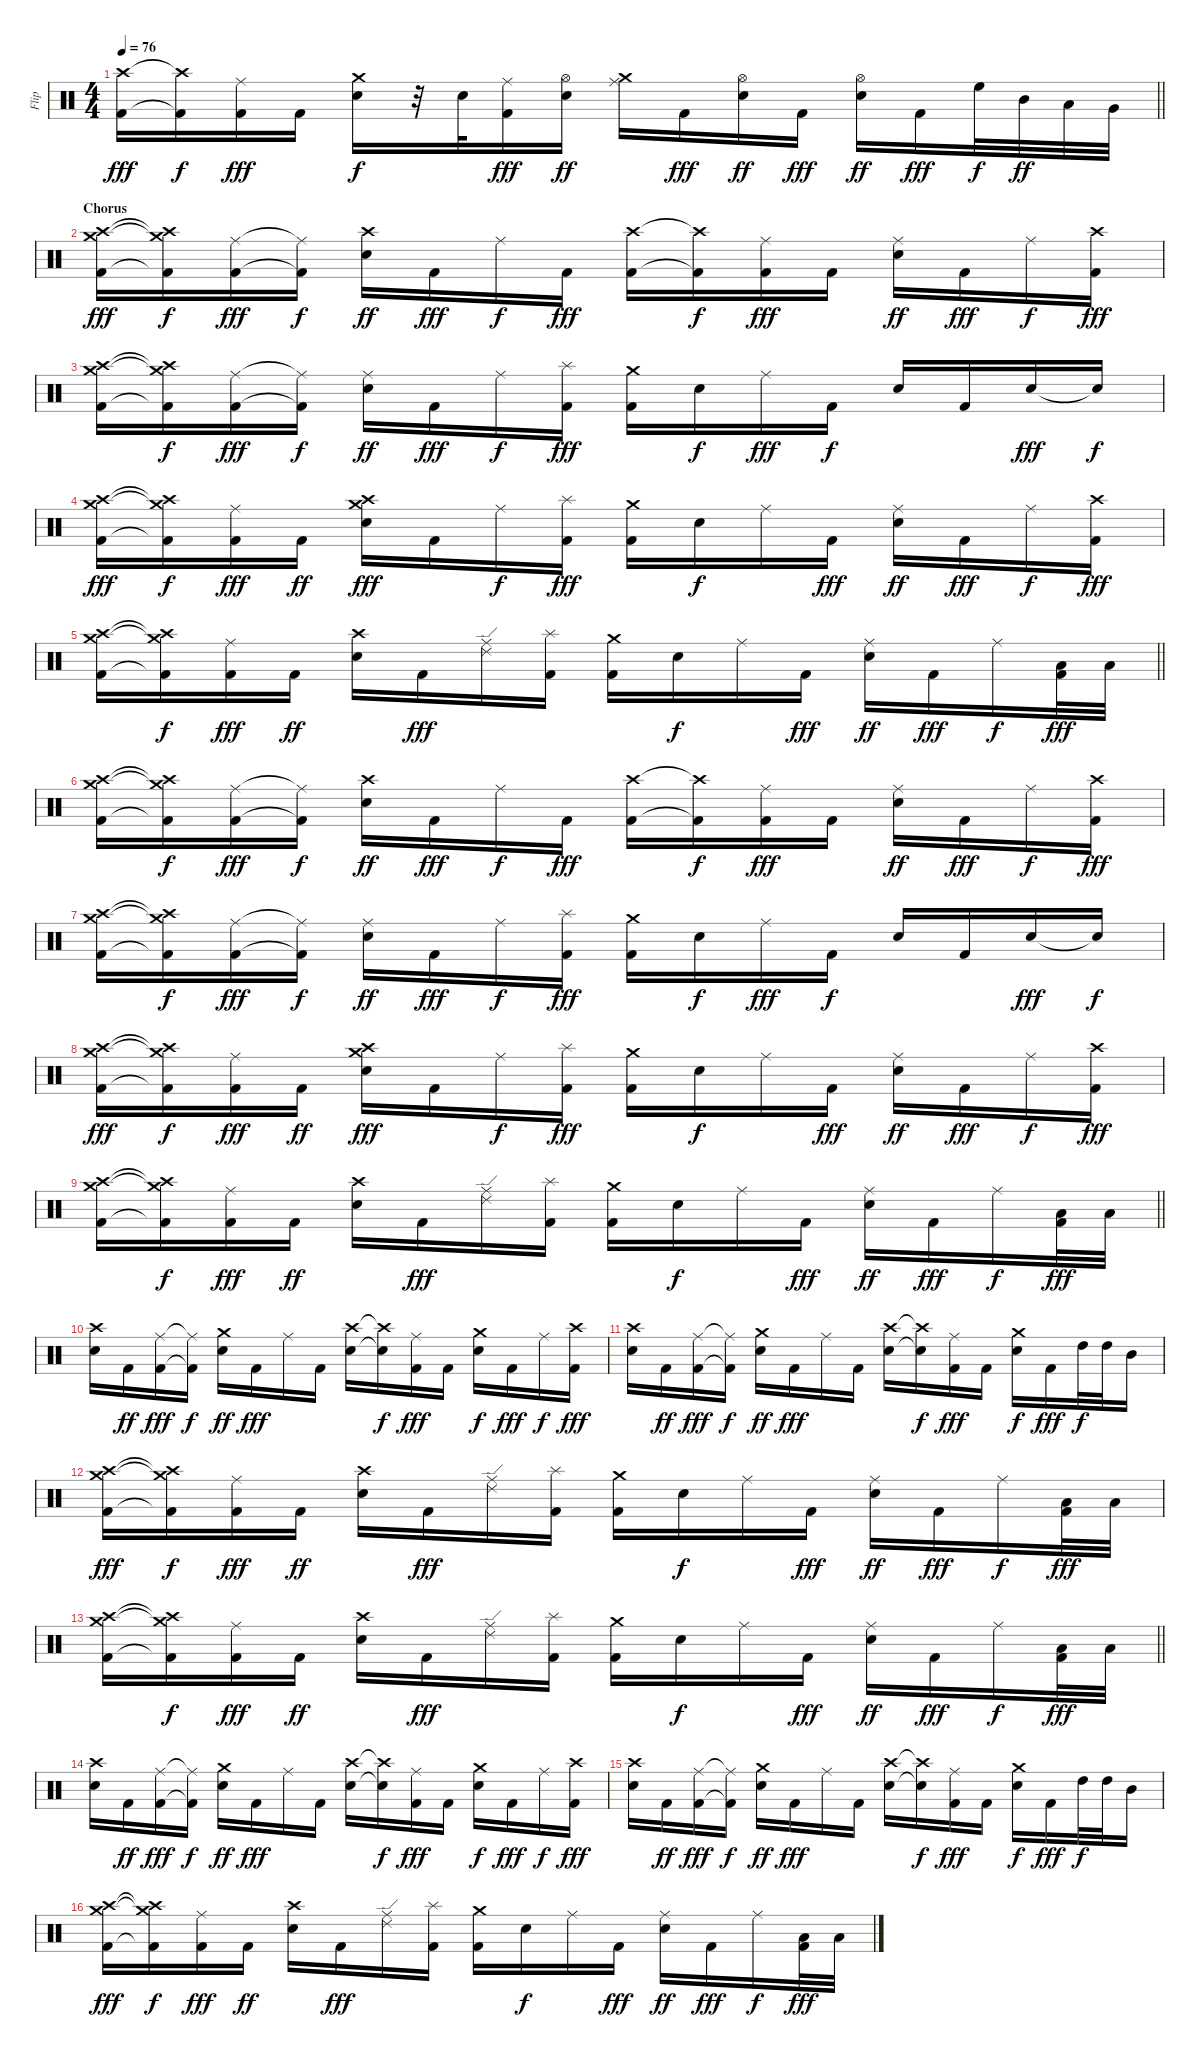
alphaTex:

\track ("Flip" "Flip") {instrument percussion}
\staff {score}
\articulation defaults
\ts (4 4)
\tempo 76
\clef neutral
\barLineRight lightlight
\ks c
("Crash high (hit)" "Kick (hit) 2").16{dy fff} ("Crash high (hit)"{t} "Kick (hit) 2"{t}).16{dy f} ("Ride (middle)" "Kick (hit) 2").16{dy fff} "Kick (hit) 2".16 ("Crash medium (hit)" "Snare (hit) 2").16{dy f} r.32 "Snare (hit) 2".32 ("Ride (middle)" "Kick (hit) 2").16{dy fff} ("Hi-Hat (open)" "Snare (hit) 2").16{dy ff} ("Crash medium (hit)" "Ride (middle)").16 "Kick (hit) 2".16{dy fff} ("Hi-Hat (open)" "Snare (hit) 2").16{dy ff} "Kick (hit) 2".16{dy fff} ("Hi-Hat (open)" "Snare (hit) 2").16{dy ff} "Kick (hit) 2".16{dy fff} "High Floor Tom (hit)".32{dy f} "Mid Tom (hit)".32{dy ff} "Low Tom (hit)".32 "Very Low Tom (hit)".32 |
\section ("" "Chorus")
("Crash medium (hit)" "Crash high (hit)" "Kick (hit) 2").16{dy fff} ("Crash medium (hit)"{t} "Crash high (hit)"{t} "Kick (hit) 2"{t}).16{dy f} ("Ride (middle)" "Kick (hit) 2").16{dy fff} ("Ride (middle)"{t} "Kick (hit) 2"{t}).16{dy f} ("Crash high (hit)" "Snare (hit) 2").16{dy ff} "Kick (hit) 2".16{dy fff} "Ride (middle)".16{dy f} "Kick (hit) 2".16{dy fff} ("Crash high (hit)" "Kick (hit) 2").16 ("Crash high (hit)"{t} "Kick (hit) 2"{t}).16{dy f} ("Ride (middle)" "Kick (hit) 2").16{dy fff} "Kick (hit) 2".16 ("Ride (middle)" "Snare (hit) 2").16{dy ff} "Kick (hit) 2".16{dy fff} "Ride (middle)".16{dy f} ("Crash high (hit)" "Kick (hit) 2").16{dy fff} |
("Crash medium (hit)" "Crash high (hit)" "Kick (hit) 2").16 ("Crash medium (hit)"{t} "Crash high (hit)"{t} "Kick (hit) 2"{t}).16{dy f} ("Ride (middle)" "Kick (hit) 2").16{dy fff} ("Ride (middle)"{t} "Kick (hit) 2"{t}).16{dy f} ("Ride (middle)" "Snare (hit) 2").16{dy ff} "Kick (hit) 2".16{dy fff} "Ride (middle)".16{dy f} ("Splash (hit)" "Kick (hit) 2").16{dy fff} ("Crash medium (hit)" "Kick (hit) 2").16 "Snare (hit) 2".16{dy f} "Ride (middle)".16{dy fff} "Kick (hit) 2".16{dy f} "Snare (hit) 2".16 "Kick (hit) 2".16 "Snare (hit) 2".16{dy fff} "Snare (hit) 2"{t}.16{dy f} |
("Crash medium (hit)" "Crash high (hit)" "Kick (hit) 2").16{dy fff} ("Crash medium (hit)"{t} "Crash high (hit)"{t} "Kick (hit) 2"{t}).16{dy f} ("Ride (middle)" "Kick (hit) 2").16{dy fff} "Kick (hit) 2".16{dy ff} ("Crash high (hit)" "Crash medium (hit)" "Snare (hit) 2").16{dy fff} "Kick (hit) 2".16 "Ride (middle)".16{dy f} ("Splash (hit)" "Kick (hit) 2").16{dy fff} ("Crash medium (hit)" "Kick (hit) 2").16 "Snare (hit) 2".16{dy f} "Ride (middle)".16 "Kick (hit) 2".16{dy fff} ("Ride (middle)" "Snare (hit) 2").16{dy ff} "Kick (hit) 2".16{dy fff} "Ride (middle)".16{dy f} ("Crash high (hit)" "Kick (hit) 2").16{dy fff} |
\barLineRight lightlight
("Crash medium (hit)" "Crash high (hit)" "Kick (hit) 2").16 ("Crash medium (hit)"{t} "Crash high (hit)"{t} "Kick (hit) 2"{t}).16{dy f} ("Ride (middle)" "Kick (hit) 2").16{dy fff} "Kick (hit) 2".16{dy ff} ("Crash high (hit)" "Snare (hit) 2").16 "Kick (hit) 2".16{dy fff} ("Ride (middle)" "Ride (edge) 2").16 ("Splash (hit)" "Kick (hit) 2").16 ("Crash medium (hit)" "Kick (hit) 2").16 "Snare (hit) 2".16{dy f} "Ride (middle)".16 "Kick (hit) 2".16{dy fff} ("Ride (middle)" "Snare (hit) 2").16{dy ff} "Kick (hit) 2".16{dy fff} "Ride (middle)".16{dy f} ("Low Tom (hit)" "Kick (hit) 2").32{dy fff} "Low Tom (hit)".32 |
("Crash medium (hit)" "Crash high (hit)" "Kick (hit) 2").16 ("Crash medium (hit)"{t} "Crash high (hit)"{t} "Kick (hit) 2"{t}).16{dy f} ("Ride (middle)" "Kick (hit) 2").16{dy fff} ("Ride (middle)"{t} "Kick (hit) 2"{t}).16{dy f} ("Crash high (hit)" "Snare (hit) 2").16{dy ff} "Kick (hit) 2".16{dy fff} "Ride (middle)".16{dy f} "Kick (hit) 2".16{dy fff} ("Crash high (hit)" "Kick (hit) 2").16 ("Crash high (hit)"{t} "Kick (hit) 2"{t}).16{dy f} ("Ride (middle)" "Kick (hit) 2").16{dy fff} "Kick (hit) 2".16 ("Ride (middle)" "Snare (hit) 2").16{dy ff} "Kick (hit) 2".16{dy fff} "Ride (middle)".16{dy f} ("Crash high (hit)" "Kick (hit) 2").16{dy fff} |
("Crash medium (hit)" "Crash high (hit)" "Kick (hit) 2").16 ("Crash medium (hit)"{t} "Crash high (hit)"{t} "Kick (hit) 2"{t}).16{dy f} ("Ride (middle)" "Kick (hit) 2").16{dy fff} ("Ride (middle)"{t} "Kick (hit) 2"{t}).16{dy f} ("Ride (middle)" "Snare (hit) 2").16{dy ff} "Kick (hit) 2".16{dy fff} "Ride (middle)".16{dy f} ("Splash (hit)" "Kick (hit) 2").16{dy fff} ("Crash medium (hit)" "Kick (hit) 2").16 "Snare (hit) 2".16{dy f} "Ride (middle)".16{dy fff} "Kick (hit) 2".16{dy f} "Snare (hit) 2".16 "Kick (hit) 2".16 "Snare (hit) 2".16{dy fff} "Snare (hit) 2"{t}.16{dy f} |
("Crash medium (hit)" "Crash high (hit)" "Kick (hit) 2").16{dy fff} ("Crash medium (hit)"{t} "Crash high (hit)"{t} "Kick (hit) 2"{t}).16{dy f} ("Ride (middle)" "Kick (hit) 2").16{dy fff} "Kick (hit) 2".16{dy ff} ("Crash high (hit)" "Crash medium (hit)" "Snare (hit) 2").16{dy fff} "Kick (hit) 2".16 "Ride (middle)".16{dy f} ("Splash (hit)" "Kick (hit) 2").16{dy fff} ("Crash medium (hit)" "Kick (hit) 2").16 "Snare (hit) 2".16{dy f} "Ride (middle)".16 "Kick (hit) 2".16{dy fff} ("Ride (middle)" "Snare (hit) 2").16{dy ff} "Kick (hit) 2".16{dy fff} "Ride (middle)".16{dy f} ("Crash high (hit)" "Kick (hit) 2").16{dy fff} |
\barLineRight lightlight
("Crash medium (hit)" "Crash high (hit)" "Kick (hit) 2").16 ("Crash medium (hit)"{t} "Crash high (hit)"{t} "Kick (hit) 2"{t}).16{dy f} ("Ride (middle)" "Kick (hit) 2").16{dy fff} "Kick (hit) 2".16{dy ff} ("Crash high (hit)" "Snare (hit) 2").16 "Kick (hit) 2".16{dy fff} ("Ride (middle)" "Ride (edge) 2").16 ("Splash (hit)" "Kick (hit) 2").16 ("Crash medium (hit)" "Kick (hit) 2").16 "Snare (hit) 2".16{dy f} "Ride (middle)".16 "Kick (hit) 2".16{dy fff} ("Ride (middle)" "Snare (hit) 2").16{dy ff} "Kick (hit) 2".16{dy fff} "Ride (middle)".16{dy f} ("Low Tom (hit)" "Kick (hit) 2").32{dy fff} "Low Tom (hit)".32 |
("Crash high (hit)" "Snare (hit) 2").16 "Kick (hit) 2".16{dy ff} ("Ride (middle)" "Kick (hit) 2").16{dy fff} ("Ride (middle)"{t} "Kick (hit) 2"{t}).16{dy f} ("Crash medium (hit)" "Snare (hit) 2").16{dy ff} "Kick (hit) 2".16{dy fff} "Ride (middle)".16 "Kick (hit) 2".16 ("Crash high (hit)" "Snare (hit) 2").16 ("Crash high (hit)"{t} "Snare (hit) 2"{t}).16{dy f} ("Ride (middle)" "Kick (hit) 2").16{dy fff} "Kick (hit) 2".16 ("Crash medium (hit)" "Snare (hit) 2").16{dy f} "Kick (hit) 2".16{dy fff} "Ride (middle)".16{dy f} ("Crash high (hit)" "Kick (hit) 2").16{dy fff} |
("Crash high (hit)" "Snare (hit) 2").16 "Kick (hit) 2".16{dy ff} ("Ride (middle)" "Kick (hit) 2").16{dy fff} ("Ride (middle)"{t} "Kick (hit) 2"{t}).16{dy f} ("Crash medium (hit)" "Snare (hit) 2").16{dy ff} "Kick (hit) 2".16{dy fff} "Ride (middle)".16 "Kick (hit) 2".16 ("Crash high (hit)" "Snare (hit) 2").16 ("Crash high (hit)"{t} "Snare (hit) 2"{t}).16{dy f} ("Ride (middle)" "Kick (hit) 2").16{dy fff} "Kick (hit) 2".16 ("Crash medium (hit)" "Snare (hit) 2").16{dy f} "Kick (hit) 2".16{dy fff} "High Tom (hit)".32{dy f} "High Tom (hit)".32 "Mid Tom (hit)".16 |
("Crash medium (hit)" "Crash high (hit)" "Kick (hit) 2").16{dy fff} ("Crash medium (hit)"{t} "Crash high (hit)"{t} "Kick (hit) 2"{t}).16{dy f} ("Ride (middle)" "Kick (hit) 2").16{dy fff} "Kick (hit) 2".16{dy ff} ("Crash high (hit)" "Snare (hit) 2").16 "Kick (hit) 2".16{dy fff} ("Ride (middle)" "Ride (edge) 2").16 ("Splash (hit)" "Kick (hit) 2").16 ("Crash medium (hit)" "Kick (hit) 2").16 "Snare (hit) 2".16{dy f} "Ride (middle)".16 "Kick (hit) 2".16{dy fff} ("Ride (middle)" "Snare (hit) 2").16{dy ff} "Kick (hit) 2".16{dy fff} "Ride (middle)".16{dy f} ("Low Tom (hit)" "Kick (hit) 2").32{dy fff} "Low Tom (hit)".32 |
\barLineRight lightlight
("Crash medium (hit)" "Crash high (hit)" "Kick (hit) 2").16 ("Crash medium (hit)"{t} "Crash high (hit)"{t} "Kick (hit) 2"{t}).16{dy f} ("Ride (middle)" "Kick (hit) 2").16{dy fff} "Kick (hit) 2".16{dy ff} ("Crash high (hit)" "Snare (hit) 2").16 "Kick (hit) 2".16{dy fff} ("Ride (middle)" "Ride (edge) 2").16 ("Splash (hit)" "Kick (hit) 2").16 ("Crash medium (hit)" "Kick (hit) 2").16 "Snare (hit) 2".16{dy f} "Ride (middle)".16 "Kick (hit) 2".16{dy fff} ("Ride (middle)" "Snare (hit) 2").16{dy ff} "Kick (hit) 2".16{dy fff} "Ride (middle)".16{dy f} ("Low Tom (hit)" "Kick (hit) 2").32{dy fff} "Low Tom (hit)".32 |
("Crash high (hit)" "Snare (hit) 2").16 "Kick (hit) 2".16{dy ff} ("Ride (middle)" "Kick (hit) 2").16{dy fff} ("Ride (middle)"{t} "Kick (hit) 2"{t}).16{dy f} ("Crash medium (hit)" "Snare (hit) 2").16{dy ff} "Kick (hit) 2".16{dy fff} "Ride (middle)".16 "Kick (hit) 2".16 ("Crash high (hit)" "Snare (hit) 2").16 ("Crash high (hit)"{t} "Snare (hit) 2"{t}).16{dy f} ("Ride (middle)" "Kick (hit) 2").16{dy fff} "Kick (hit) 2".16 ("Crash medium (hit)" "Snare (hit) 2").16{dy f} "Kick (hit) 2".16{dy fff} "Ride (middle)".16{dy f} ("Crash high (hit)" "Kick (hit) 2").16{dy fff} |
("Crash high (hit)" "Snare (hit) 2").16 "Kick (hit) 2".16{dy ff} ("Ride (middle)" "Kick (hit) 2").16{dy fff} ("Ride (middle)"{t} "Kick (hit) 2"{t}).16{dy f} ("Crash medium (hit)" "Snare (hit) 2").16{dy ff} "Kick (hit) 2".16{dy fff} "Ride (middle)".16 "Kick (hit) 2".16 ("Crash high (hit)" "Snare (hit) 2").16 ("Crash high (hit)"{t} "Snare (hit) 2"{t}).16{dy f} ("Ride (middle)" "Kick (hit) 2").16{dy fff} "Kick (hit) 2".16 ("Crash medium (hit)" "Snare (hit) 2").16{dy f} "Kick (hit) 2".16{dy fff} "High Tom (hit)".32{dy f} "High Tom (hit)".32 "Mid Tom (hit)".16 |
("Crash medium (hit)" "Crash high (hit)" "Kick (hit) 2").16{dy fff} ("Crash medium (hit)"{t} "Crash high (hit)"{t} "Kick (hit) 2"{t}).16{dy f} ("Ride (middle)" "Kick (hit) 2").16{dy fff} "Kick (hit) 2".16{dy ff} ("Crash high (hit)" "Snare (hit) 2").16 "Kick (hit) 2".16{dy fff} ("Ride (middle)" "Ride (edge) 2").16 ("Splash (hit)" "Kick (hit) 2").16 ("Crash medium (hit)" "Kick (hit) 2").16 "Snare (hit) 2".16{dy f} "Ride (middle)".16 "Kick (hit) 2".16{dy fff} ("Ride (middle)" "Snare (hit) 2").16{dy ff} "Kick (hit) 2".16{dy fff} "Ride (middle)".16{dy f} ("Low Tom (hit)" "Kick (hit) 2").32{dy fff} "Low Tom (hit)".32
